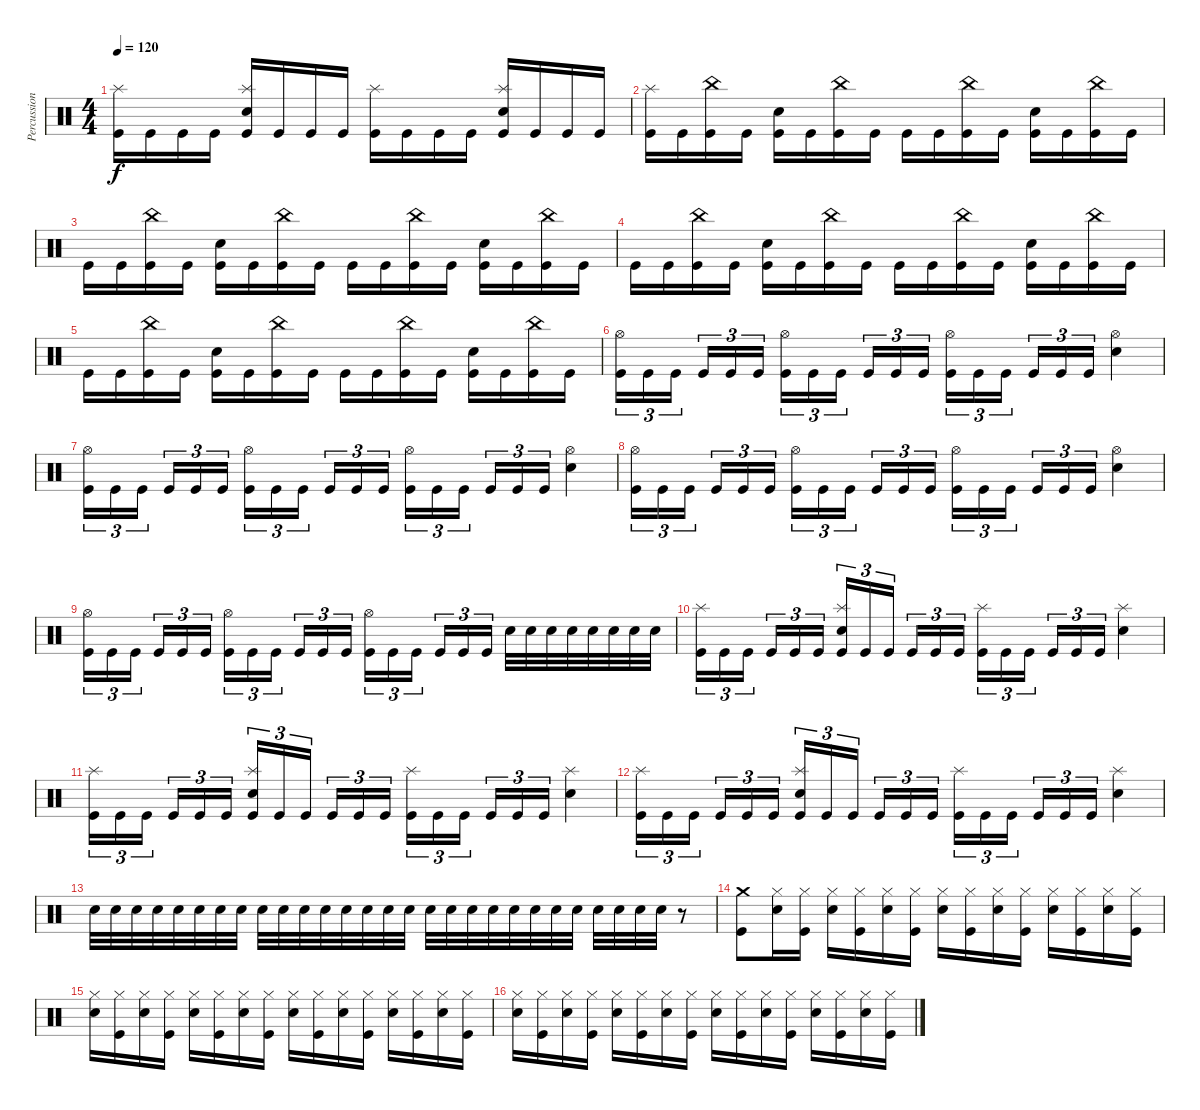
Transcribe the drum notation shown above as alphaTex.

\track ("Percussions" "Percussion") {instrument percussion}
\staff {score}
\articulation defaults
\ts (4 4)
\tempo 120
\clef neutral
\ks c
("Kick (hit)" "Splash (hit)").16{dy f} "Kick (hit)".16 "Kick (hit)".16 "Kick (hit)".16 ("Kick (hit)" "Electric Snare (hit)" "Splash (hit)").16 "Kick (hit)".16 "Kick (hit)".16 "Kick (hit)".16 ("Kick (hit)" "Splash (hit)").16 "Kick (hit)".16 "Kick (hit)".16 "Kick (hit)".16 ("Kick (hit)" "Electric Snare (hit)" "Splash (hit)").16 "Kick (hit)".16 "Kick (hit)".16 "Kick (hit)".16 |
("Kick (hit)" "Splash (hit)").16 "Kick (hit)".16 ("Kick (hit)" "China (hit)").16 "Kick (hit)".16 ("Kick (hit)" "Electric Snare (hit)").16 "Kick (hit)".16 ("Kick (hit)" "China (hit)").16 "Kick (hit)".16 "Kick (hit)".16 "Kick (hit)".16 ("Kick (hit)" "China (hit)").16 "Kick (hit)".16 ("Kick (hit)" "Electric Snare (hit)").16 "Kick (hit)".16 ("Kick (hit)" "China (hit)").16 "Kick (hit)".16 |
"Kick (hit)".16 "Kick (hit)".16 ("Kick (hit)" "China (hit)").16 "Kick (hit)".16 ("Kick (hit)" "Electric Snare (hit)").16 "Kick (hit)".16 ("Kick (hit)" "China (hit)").16 "Kick (hit)".16 "Kick (hit)".16 "Kick (hit)".16 ("Kick (hit)" "China (hit)").16 "Kick (hit)".16 ("Kick (hit)" "Electric Snare (hit)").16 "Kick (hit)".16 ("Kick (hit)" "China (hit)").16 "Kick (hit)".16 |
"Kick (hit)".16 "Kick (hit)".16 ("Kick (hit)" "China (hit)").16 "Kick (hit)".16 ("Kick (hit)" "Electric Snare (hit)").16 "Kick (hit)".16 ("Kick (hit)" "China (hit)").16 "Kick (hit)".16 "Kick (hit)".16 "Kick (hit)".16 ("Kick (hit)" "China (hit)").16 "Kick (hit)".16 ("Kick (hit)" "Electric Snare (hit)").16 "Kick (hit)".16 ("Kick (hit)" "China (hit)").16 "Kick (hit)".16 |
"Kick (hit)".16 "Kick (hit)".16 ("Kick (hit)" "China (hit)").16 "Kick (hit)".16 ("Kick (hit)" "Electric Snare (hit)").16 "Kick (hit)".16 ("Kick (hit)" "China (hit)").16 "Kick (hit)".16 "Kick (hit)".16 "Kick (hit)".16 ("Kick (hit)" "China (hit)").16 "Kick (hit)".16 ("Kick (hit)" "Electric Snare (hit)").16 "Kick (hit)".16 ("Kick (hit)" "China (hit)").16 "Kick (hit)".16 |
("Kick (hit)" "Hi-Hat (open)").16{tu (3 2)} "Kick (hit)".16{tu (3 2)} "Kick (hit)".16{tu (3 2)} "Kick (hit)".16{tu (3 2)} "Kick (hit)".16{tu (3 2)} "Kick (hit)".16{tu (3 2)} ("Kick (hit)" "Hi-Hat (open)").16{tu (3 2)} "Kick (hit)".16{tu (3 2)} "Kick (hit)".16{tu (3 2)} "Kick (hit)".16{tu (3 2)} "Kick (hit)".16{tu (3 2)} "Kick (hit)".16{tu (3 2)} ("Kick (hit)" "Hi-Hat (open)").16{tu (3 2)} "Kick (hit)".16{tu (3 2)} "Kick (hit)".16{tu (3 2)} "Kick (hit)".16{tu (3 2)} "Kick (hit)".16{tu (3 2)} "Kick (hit)".16{tu (3 2)} ("Electric Snare (hit)" "Hi-Hat (open)").4 |
("Kick (hit)" "Hi-Hat (open)").16{tu (3 2)} "Kick (hit)".16{tu (3 2)} "Kick (hit)".16{tu (3 2)} "Kick (hit)".16{tu (3 2)} "Kick (hit)".16{tu (3 2)} "Kick (hit)".16{tu (3 2)} ("Kick (hit)" "Hi-Hat (open)").16{tu (3 2)} "Kick (hit)".16{tu (3 2)} "Kick (hit)".16{tu (3 2)} "Kick (hit)".16{tu (3 2)} "Kick (hit)".16{tu (3 2)} "Kick (hit)".16{tu (3 2)} ("Kick (hit)" "Hi-Hat (open)").16{tu (3 2)} "Kick (hit)".16{tu (3 2)} "Kick (hit)".16{tu (3 2)} "Kick (hit)".16{tu (3 2)} "Kick (hit)".16{tu (3 2)} "Kick (hit)".16{tu (3 2)} ("Electric Snare (hit)" "Hi-Hat (open)").4 |
("Kick (hit)" "Hi-Hat (open)").16{tu (3 2)} "Kick (hit)".16{tu (3 2)} "Kick (hit)".16{tu (3 2)} "Kick (hit)".16{tu (3 2)} "Kick (hit)".16{tu (3 2)} "Kick (hit)".16{tu (3 2)} ("Kick (hit)" "Hi-Hat (open)").16{tu (3 2)} "Kick (hit)".16{tu (3 2)} "Kick (hit)".16{tu (3 2)} "Kick (hit)".16{tu (3 2)} "Kick (hit)".16{tu (3 2)} "Kick (hit)".16{tu (3 2)} ("Kick (hit)" "Hi-Hat (open)").16{tu (3 2)} "Kick (hit)".16{tu (3 2)} "Kick (hit)".16{tu (3 2)} "Kick (hit)".16{tu (3 2)} "Kick (hit)".16{tu (3 2)} "Kick (hit)".16{tu (3 2)} ("Electric Snare (hit)" "Hi-Hat (open)").4 |
("Kick (hit)" "Hi-Hat (open)").16{tu (3 2)} "Kick (hit)".16{tu (3 2)} "Kick (hit)".16{tu (3 2)} "Kick (hit)".16{tu (3 2)} "Kick (hit)".16{tu (3 2)} "Kick (hit)".16{tu (3 2)} ("Kick (hit)" "Hi-Hat (open)").16{tu (3 2)} "Kick (hit)".16{tu (3 2)} "Kick (hit)".16{tu (3 2)} "Kick (hit)".16{tu (3 2)} "Kick (hit)".16{tu (3 2)} "Kick (hit)".16{tu (3 2)} ("Kick (hit)" "Hi-Hat (open)").16{tu (3 2)} "Kick (hit)".16{tu (3 2)} "Kick (hit)".16{tu (3 2)} "Kick (hit)".16{tu (3 2)} "Kick (hit)".16{tu (3 2)} "Kick (hit)".16{tu (3 2)} "Electric Snare (hit)".32 "Electric Snare (hit)".32 "Electric Snare (hit)".32 "Electric Snare (hit)".32 "Electric Snare (hit)".32 "Electric Snare (hit)".32 "Electric Snare (hit)".32 "Electric Snare (hit)".32 |
("Kick (hit)" "Splash (hit)").16{tu (3 2)} "Kick (hit)".16{tu (3 2)} "Kick (hit)".16{tu (3 2)} "Kick (hit)".16{tu (3 2)} "Kick (hit)".16{tu (3 2)} "Kick (hit)".16{tu (3 2)} ("Kick (hit)" "Electric Snare (hit)" "Splash (hit)").16{tu (3 2)} "Kick (hit)".16{tu (3 2)} "Kick (hit)".16{tu (3 2)} "Kick (hit)".16{tu (3 2)} "Kick (hit)".16{tu (3 2)} "Kick (hit)".16{tu (3 2)} ("Kick (hit)" "Splash (hit)").16{tu (3 2)} "Kick (hit)".16{tu (3 2)} "Kick (hit)".16{tu (3 2)} "Kick (hit)".16{tu (3 2)} "Kick (hit)".16{tu (3 2)} "Kick (hit)".16{tu (3 2)} ("Electric Snare (hit)" "Splash (hit)").4 |
("Kick (hit)" "Splash (hit)").16{tu (3 2)} "Kick (hit)".16{tu (3 2)} "Kick (hit)".16{tu (3 2)} "Kick (hit)".16{tu (3 2)} "Kick (hit)".16{tu (3 2)} "Kick (hit)".16{tu (3 2)} ("Kick (hit)" "Electric Snare (hit)" "Splash (hit)").16{tu (3 2)} "Kick (hit)".16{tu (3 2)} "Kick (hit)".16{tu (3 2)} "Kick (hit)".16{tu (3 2)} "Kick (hit)".16{tu (3 2)} "Kick (hit)".16{tu (3 2)} ("Kick (hit)" "Splash (hit)").16{tu (3 2)} "Kick (hit)".16{tu (3 2)} "Kick (hit)".16{tu (3 2)} "Kick (hit)".16{tu (3 2)} "Kick (hit)".16{tu (3 2)} "Kick (hit)".16{tu (3 2)} ("Electric Snare (hit)" "Splash (hit)").4 |
("Kick (hit)" "Splash (hit)").16{tu (3 2)} "Kick (hit)".16{tu (3 2)} "Kick (hit)".16{tu (3 2)} "Kick (hit)".16{tu (3 2)} "Kick (hit)".16{tu (3 2)} "Kick (hit)".16{tu (3 2)} ("Kick (hit)" "Electric Snare (hit)" "Splash (hit)").16{tu (3 2)} "Kick (hit)".16{tu (3 2)} "Kick (hit)".16{tu (3 2)} "Kick (hit)".16{tu (3 2)} "Kick (hit)".16{tu (3 2)} "Kick (hit)".16{tu (3 2)} ("Kick (hit)" "Splash (hit)").16{tu (3 2)} "Kick (hit)".16{tu (3 2)} "Kick (hit)".16{tu (3 2)} "Kick (hit)".16{tu (3 2)} "Kick (hit)".16{tu (3 2)} "Kick (hit)".16{tu (3 2)} ("Electric Snare (hit)" "Splash (hit)").4 |
"Electric Snare (hit)".32 "Electric Snare (hit)".32 "Electric Snare (hit)".32 "Electric Snare (hit)".32 "Electric Snare (hit)".32 "Electric Snare (hit)".32 "Electric Snare (hit)".32 "Electric Snare (hit)".32 "Electric Snare (hit)".32 "Electric Snare (hit)".32 "Electric Snare (hit)".32 "Electric Snare (hit)".32 "Electric Snare (hit)".32 "Electric Snare (hit)".32 "Electric Snare (hit)".32 "Electric Snare (hit)".32 "Electric Snare (hit)".32 "Electric Snare (hit)".32 "Electric Snare (hit)".32 "Electric Snare (hit)".32 "Electric Snare (hit)".32 "Electric Snare (hit)".32 "Electric Snare (hit)".32 "Electric Snare (hit)".32 "Electric Snare (hit)".32 "Electric Snare (hit)".32 "Electric Snare (hit)".32 "Electric Snare (hit)".32 r.8 |
("Kick (hit)" "Crash medium (hit)").8 ("Electric Snare (hit)" "Hi-Hat (closed)").16 ("Kick (hit)" "Hi-Hat (closed)").16 ("Electric Snare (hit)" "Hi-Hat (closed)").16 ("Kick (hit)" "Hi-Hat (closed)").16 ("Electric Snare (hit)" "Hi-Hat (closed)").16 ("Kick (hit)" "Hi-Hat (closed)").16 ("Electric Snare (hit)" "Hi-Hat (closed)").16 ("Kick (hit)" "Hi-Hat (closed)").16 ("Electric Snare (hit)" "Hi-Hat (closed)").16 ("Kick (hit)" "Hi-Hat (closed)").16 ("Electric Snare (hit)" "Hi-Hat (closed)").16 ("Kick (hit)" "Hi-Hat (closed)").16 ("Electric Snare (hit)" "Hi-Hat (closed)").16 ("Kick (hit)" "Hi-Hat (closed)").16 |
("Electric Snare (hit)" "Hi-Hat (closed)").16 ("Kick (hit)" "Hi-Hat (closed)").16 ("Electric Snare (hit)" "Hi-Hat (closed)").16 ("Kick (hit)" "Hi-Hat (closed)").16 ("Electric Snare (hit)" "Hi-Hat (closed)").16 ("Kick (hit)" "Hi-Hat (closed)").16 ("Electric Snare (hit)" "Hi-Hat (closed)").16 ("Kick (hit)" "Hi-Hat (closed)").16 ("Electric Snare (hit)" "Hi-Hat (closed)").16 ("Kick (hit)" "Hi-Hat (closed)").16 ("Electric Snare (hit)" "Hi-Hat (closed)").16 ("Kick (hit)" "Hi-Hat (closed)").16 ("Electric Snare (hit)" "Hi-Hat (closed)").16 ("Kick (hit)" "Hi-Hat (closed)").16 ("Electric Snare (hit)" "Hi-Hat (closed)").16 ("Kick (hit)" "Hi-Hat (closed)").16 |
("Electric Snare (hit)" "Hi-Hat (closed)").16 ("Kick (hit)" "Hi-Hat (closed)").16 ("Electric Snare (hit)" "Hi-Hat (closed)").16 ("Kick (hit)" "Hi-Hat (closed)").16 ("Electric Snare (hit)" "Hi-Hat (closed)").16 ("Kick (hit)" "Hi-Hat (closed)").16 ("Electric Snare (hit)" "Hi-Hat (closed)").16 ("Kick (hit)" "Hi-Hat (closed)").16 ("Electric Snare (hit)" "Hi-Hat (closed)").16 ("Kick (hit)" "Hi-Hat (closed)").16 ("Electric Snare (hit)" "Hi-Hat (closed)").16 ("Kick (hit)" "Hi-Hat (closed)").16 ("Electric Snare (hit)" "Hi-Hat (closed)").16 ("Kick (hit)" "Hi-Hat (closed)").16 ("Electric Snare (hit)" "Hi-Hat (closed)").16 ("Kick (hit)" "Hi-Hat (closed)").16
